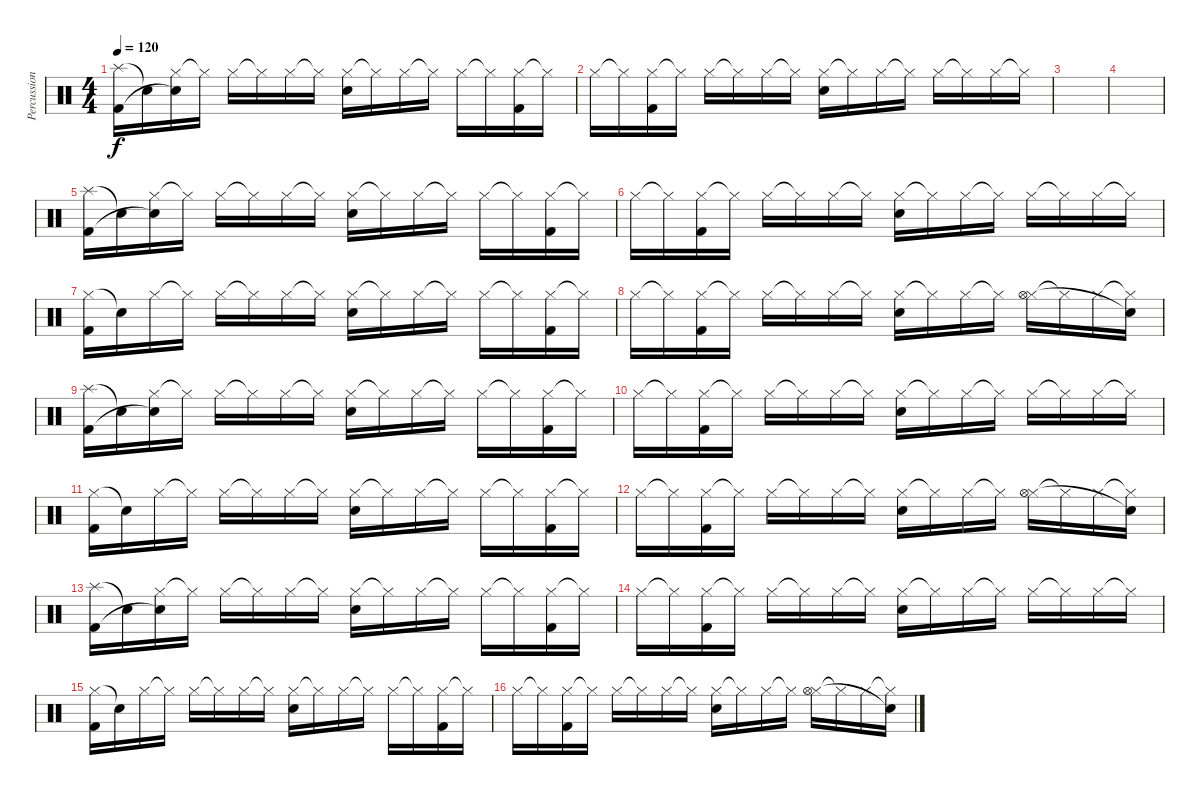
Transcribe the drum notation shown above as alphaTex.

\track ("Percussion" "Percussion") {instrument percussion}
\staff {score}
\articulation defaults
\ts (4 4)
\tempo 120
\clef neutral
\ks c
("Splash (hit)" "Kick (hit) 2").16{dy f} "Snare (hit)"{t}.16 ("Hi-Hat (closed)" "Snare (hit)"{t}).16 "Hi-Hat (closed)"{t}.16 "Hi-Hat (closed)".16 "Hi-Hat (closed)"{t}.16 "Hi-Hat (closed)".16 "Hi-Hat (closed)"{t}.16 ("Hi-Hat (closed)" "Snare (hit) 2").16 "Hi-Hat (closed)"{t}.16 "Hi-Hat (closed)".16 "Hi-Hat (closed)"{t}.16 "Hi-Hat (closed)".16 "Hi-Hat (closed)"{t}.16 ("Hi-Hat (closed)" "Kick (hit) 2").16 "Hi-Hat (closed)"{t}.16 |
"Hi-Hat (closed)".16 "Hi-Hat (closed)"{t}.16 ("Hi-Hat (closed)" "Kick (hit) 2").16 "Hi-Hat (closed)"{t}.16 "Hi-Hat (closed)".16 "Hi-Hat (closed)"{t}.16 "Hi-Hat (closed)".16 "Hi-Hat (closed)"{t}.16 ("Hi-Hat (closed)" "Snare (hit) 2").16 "Hi-Hat (closed)"{t}.16 "Hi-Hat (closed)".16 "Hi-Hat (closed)"{t}.16 "Hi-Hat (closed)".16 "Hi-Hat (closed)"{t}.16 "Hi-Hat (closed)".16 "Hi-Hat (closed)"{t}.16 |
|
|
("Splash (hit)" "Kick (hit) 2").16 "Snare (hit)"{t}.16 ("Hi-Hat (closed)" "Snare (hit)"{t}).16 "Hi-Hat (closed)"{t}.16 "Hi-Hat (closed)".16 "Hi-Hat (closed)"{t}.16 "Hi-Hat (closed)".16 "Hi-Hat (closed)"{t}.16 ("Hi-Hat (closed)" "Snare (hit) 2").16 "Hi-Hat (closed)"{t}.16 "Hi-Hat (closed)".16 "Hi-Hat (closed)"{t}.16 "Hi-Hat (closed)".16 "Hi-Hat (closed)"{t}.16 ("Hi-Hat (closed)" "Kick (hit) 2").16 "Hi-Hat (closed)"{t}.16 |
"Hi-Hat (closed)".16 "Hi-Hat (closed)"{t}.16 ("Hi-Hat (closed)" "Kick (hit) 2").16 "Hi-Hat (closed)"{t}.16 "Hi-Hat (closed)".16 "Hi-Hat (closed)"{t}.16 "Hi-Hat (closed)".16 "Hi-Hat (closed)"{t}.16 ("Hi-Hat (closed)" "Snare (hit) 2").16 "Hi-Hat (closed)"{t}.16 "Hi-Hat (closed)".16 "Hi-Hat (closed)"{t}.16 "Hi-Hat (closed)".16 "Hi-Hat (closed)"{t}.16 "Hi-Hat (closed)".16 "Hi-Hat (closed)"{t}.16 |
("Hi-Hat (closed)" "Kick (hit) 2").16 "Snare (hit)"{t}.16 "Hi-Hat (closed)".16 "Hi-Hat (closed)"{t}.16 "Hi-Hat (closed)".16 "Hi-Hat (closed)"{t}.16 "Hi-Hat (closed)".16 "Hi-Hat (closed)"{t}.16 ("Hi-Hat (closed)" "Snare (hit) 2").16 "Hi-Hat (closed)"{t}.16 "Hi-Hat (closed)".16 "Hi-Hat (closed)"{t}.16 "Hi-Hat (closed)".16 "Hi-Hat (closed)"{t}.16 ("Hi-Hat (closed)" "Kick (hit) 2").16 "Hi-Hat (closed)"{t}.16 |
"Hi-Hat (closed)".16 "Hi-Hat (closed)"{t}.16 ("Hi-Hat (closed)" "Kick (hit) 2").16 "Hi-Hat (closed)"{t}.16 "Hi-Hat (closed)".16 "Hi-Hat (closed)"{t}.16 "Hi-Hat (closed)".16 "Hi-Hat (closed)"{t}.16 ("Hi-Hat (closed)" "Snare (hit) 2").16 "Hi-Hat (closed)"{t}.16 "Hi-Hat (closed)".16 "Hi-Hat (closed)"{t}.16 ("Hi-Hat (closed)" "Hi-Hat (open)").16 "Hi-Hat (closed)"{t}.16 "Hi-Hat (closed)".16 ("Hi-Hat (closed)"{t} "Snare (hit)"{t}).16 |
("Splash (hit)" "Kick (hit) 2").16 "Snare (hit)"{t}.16 ("Hi-Hat (closed)" "Snare (hit)"{t}).16 "Hi-Hat (closed)"{t}.16 "Hi-Hat (closed)".16 "Hi-Hat (closed)"{t}.16 "Hi-Hat (closed)".16 "Hi-Hat (closed)"{t}.16 ("Hi-Hat (closed)" "Snare (hit) 2").16 "Hi-Hat (closed)"{t}.16 "Hi-Hat (closed)".16 "Hi-Hat (closed)"{t}.16 "Hi-Hat (closed)".16 "Hi-Hat (closed)"{t}.16 ("Hi-Hat (closed)" "Kick (hit) 2").16 "Hi-Hat (closed)"{t}.16 |
"Hi-Hat (closed)".16 "Hi-Hat (closed)"{t}.16 ("Hi-Hat (closed)" "Kick (hit) 2").16 "Hi-Hat (closed)"{t}.16 "Hi-Hat (closed)".16 "Hi-Hat (closed)"{t}.16 "Hi-Hat (closed)".16 "Hi-Hat (closed)"{t}.16 ("Hi-Hat (closed)" "Snare (hit) 2").16 "Hi-Hat (closed)"{t}.16 "Hi-Hat (closed)".16 "Hi-Hat (closed)"{t}.16 "Hi-Hat (closed)".16 "Hi-Hat (closed)"{t}.16 "Hi-Hat (closed)".16 "Hi-Hat (closed)"{t}.16 |
("Hi-Hat (closed)" "Kick (hit) 2").16 "Snare (hit)"{t}.16 "Hi-Hat (closed)".16 "Hi-Hat (closed)"{t}.16 "Hi-Hat (closed)".16 "Hi-Hat (closed)"{t}.16 "Hi-Hat (closed)".16 "Hi-Hat (closed)"{t}.16 ("Hi-Hat (closed)" "Snare (hit) 2").16 "Hi-Hat (closed)"{t}.16 "Hi-Hat (closed)".16 "Hi-Hat (closed)"{t}.16 "Hi-Hat (closed)".16 "Hi-Hat (closed)"{t}.16 ("Hi-Hat (closed)" "Kick (hit) 2").16 "Hi-Hat (closed)"{t}.16 |
"Hi-Hat (closed)".16 "Hi-Hat (closed)"{t}.16 ("Hi-Hat (closed)" "Kick (hit) 2").16 "Hi-Hat (closed)"{t}.16 "Hi-Hat (closed)".16 "Hi-Hat (closed)"{t}.16 "Hi-Hat (closed)".16 "Hi-Hat (closed)"{t}.16 ("Hi-Hat (closed)" "Snare (hit) 2").16 "Hi-Hat (closed)"{t}.16 "Hi-Hat (closed)".16 "Hi-Hat (closed)"{t}.16 ("Hi-Hat (closed)" "Hi-Hat (open)").16 "Hi-Hat (closed)"{t}.16 "Hi-Hat (closed)".16 ("Hi-Hat (closed)"{t} "Snare (hit)"{t}).16 |
("Splash (hit)" "Kick (hit) 2").16 "Snare (hit)"{t}.16 ("Hi-Hat (closed)" "Snare (hit)"{t}).16 "Hi-Hat (closed)"{t}.16 "Hi-Hat (closed)".16 "Hi-Hat (closed)"{t}.16 "Hi-Hat (closed)".16 "Hi-Hat (closed)"{t}.16 ("Hi-Hat (closed)" "Snare (hit) 2").16 "Hi-Hat (closed)"{t}.16 "Hi-Hat (closed)".16 "Hi-Hat (closed)"{t}.16 "Hi-Hat (closed)".16 "Hi-Hat (closed)"{t}.16 ("Hi-Hat (closed)" "Kick (hit) 2").16 "Hi-Hat (closed)"{t}.16 |
"Hi-Hat (closed)".16 "Hi-Hat (closed)"{t}.16 ("Hi-Hat (closed)" "Kick (hit) 2").16 "Hi-Hat (closed)"{t}.16 "Hi-Hat (closed)".16 "Hi-Hat (closed)"{t}.16 "Hi-Hat (closed)".16 "Hi-Hat (closed)"{t}.16 ("Hi-Hat (closed)" "Snare (hit) 2").16 "Hi-Hat (closed)"{t}.16 "Hi-Hat (closed)".16 "Hi-Hat (closed)"{t}.16 "Hi-Hat (closed)".16 "Hi-Hat (closed)"{t}.16 "Hi-Hat (closed)".16 "Hi-Hat (closed)"{t}.16 |
("Hi-Hat (closed)" "Kick (hit) 2").16 "Snare (hit)"{t}.16 "Hi-Hat (closed)".16 "Hi-Hat (closed)"{t}.16 "Hi-Hat (closed)".16 "Hi-Hat (closed)"{t}.16 "Hi-Hat (closed)".16 "Hi-Hat (closed)"{t}.16 ("Hi-Hat (closed)" "Snare (hit) 2").16 "Hi-Hat (closed)"{t}.16 "Hi-Hat (closed)".16 "Hi-Hat (closed)"{t}.16 "Hi-Hat (closed)".16 "Hi-Hat (closed)"{t}.16 ("Hi-Hat (closed)" "Kick (hit) 2").16 "Hi-Hat (closed)"{t}.16 |
"Hi-Hat (closed)".16 "Hi-Hat (closed)"{t}.16 ("Hi-Hat (closed)" "Kick (hit) 2").16 "Hi-Hat (closed)"{t}.16 "Hi-Hat (closed)".16 "Hi-Hat (closed)"{t}.16 "Hi-Hat (closed)".16 "Hi-Hat (closed)"{t}.16 ("Hi-Hat (closed)" "Snare (hit) 2").16 "Hi-Hat (closed)"{t}.16 "Hi-Hat (closed)".16 "Hi-Hat (closed)"{t}.16 ("Hi-Hat (closed)" "Hi-Hat (open)").16 "Hi-Hat (closed)"{t}.16 "Hi-Hat (closed)".16 ("Hi-Hat (closed)"{t} "Snare (hit)"{t}).16
